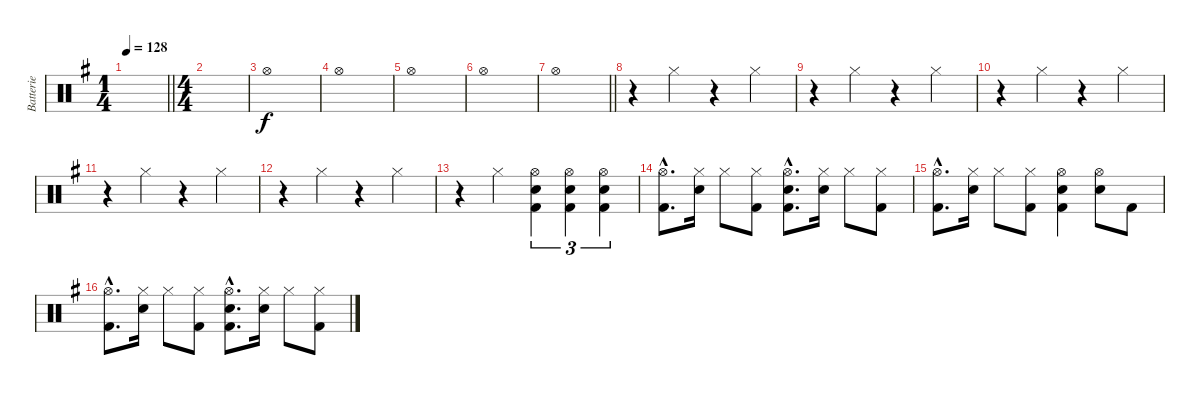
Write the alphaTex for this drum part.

\track ("Batterie" "Batterie") {instrument percussion}
\staff {score}
\articulation defaults
\ts (1 4)
\tempo 128
\clef neutral
\barLineRight lightlight
\ks g
|
\ts (4 4)
|
"Hi-Hat (open)".1 |
"Hi-Hat (open)".1 |
"Hi-Hat (open)".1 |
"Hi-Hat (open)".1 |
\barLineRight lightlight "Hi-Hat (open)".1
|
r.4 "Hi-Hat (closed)".4 r.4 "Hi-Hat (closed)".4 |
r.4 "Hi-Hat (closed)".4 r.4 "Hi-Hat (closed)".4 |
r.4 "Hi-Hat (closed)".4 r.4 "Hi-Hat (closed)".4 |
r.4 "Hi-Hat (closed)".4 r.4 "Hi-Hat (closed)".4 |
r.4 "Hi-Hat (closed)".4 r.4 "Hi-Hat (closed)".4 |
r.4 "Hi-Hat (closed)".4 ("Hi-Hat (open)" "Snare (hit) 2" "Kick (hit) 2").4{tu (3 2)} ("Hi-Hat (open)" "Snare (hit) 2" "Kick (hit) 2").4{tu (3 2)} ("Hi-Hat (open)" "Snare (hit) 2" "Kick (hit) 2").4{tu (3 2)} |
("Hi-Hat (open)"{hac} "Kick (hit) 2"{hac}).8{d} ("Hi-Hat (closed)" "Snare (hit) 2").16 "Hi-Hat (closed)".8 ("Hi-Hat (closed)" "Kick (hit) 2").8 ("Hi-Hat (open)"{hac} "Snare (hit) 2"{hac} "Kick (hit) 2"{hac}).8{d} ("Hi-Hat (closed)" "Snare (hit) 2").16 "Hi-Hat (closed)".8 ("Hi-Hat (closed)" "Kick (hit) 2").8 |
("Hi-Hat (open)"{hac} "Kick (hit) 2"{hac}).8{d} ("Hi-Hat (closed)" "Snare (hit) 2").16 "Hi-Hat (closed)".8 ("Hi-Hat (closed)" "Kick (hit) 2").8 ("Hi-Hat (open)" "Snare (hit) 2" "Kick (hit) 2").4 ("Hi-Hat (open)" "Snare (hit) 2").8 "Kick (hit) 2".8 |
("Hi-Hat (open)"{hac} "Kick (hit) 2"{hac}).8{d} ("Hi-Hat (closed)" "Snare (hit) 2").16 "Hi-Hat (closed)".8 ("Hi-Hat (closed)" "Kick (hit) 2").8 ("Hi-Hat (open)"{hac} "Snare (hit) 2"{hac} "Kick (hit) 2"{hac}).8{d} ("Hi-Hat (closed)" "Snare (hit) 2").16 "Hi-Hat (closed)".8 ("Hi-Hat (closed)" "Kick (hit) 2").8
